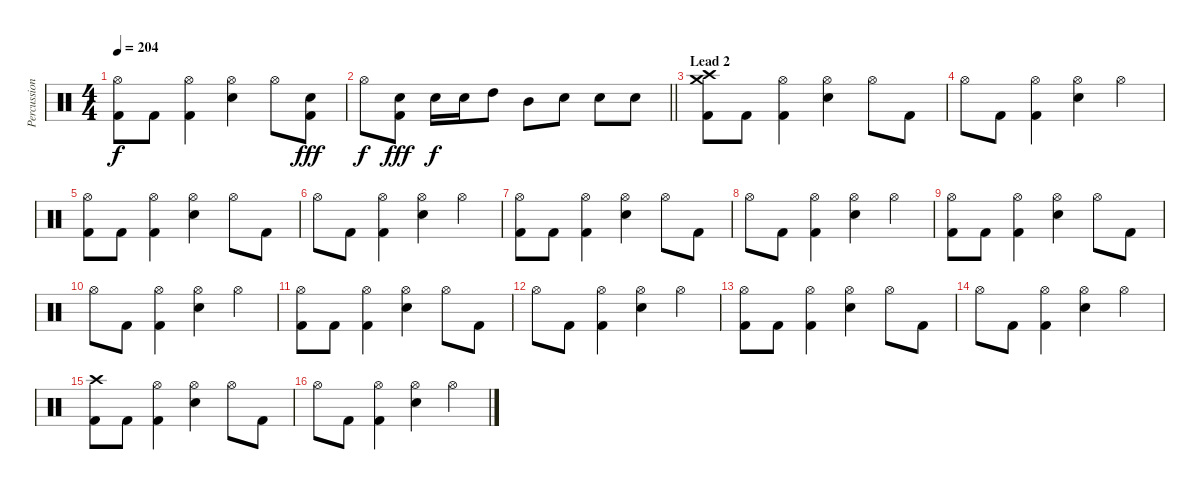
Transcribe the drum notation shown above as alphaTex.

\track ("Percussions" "Percussion") {instrument percussion}
\staff {score}
\articulation defaults
\ts (4 4)
\tempo 204
\clef neutral
\ks c
("Hi-Hat (open)" "Kick (hit) 2").8{dy f} "Kick (hit) 2".8 ("Hi-Hat (open)" "Kick (hit) 2").4 ("Hi-Hat (open)" "Electric Snare (hit)").4 "Hi-Hat (open)".8 ("Electric Snare (hit)" "Kick (hit) 2").8{dy fff} |
\barLineRight lightlight "Hi-Hat (open)".8{dy f}
("Electric Snare (hit)" "Kick (hit) 2").8{dy fff} "Electric Snare (hit)".16{dy f} "Electric Snare (hit)".16 "High Tom (hit)".8 "Mid Tom (hit)".8 "Electric Snare (hit)".8 "Electric Snare (hit)".8 "Electric Snare (hit)".8 |
\section ("" "Lead 2")
("Crash medium (hit)" "Crash high (hit)" "Kick (hit) 2").8 "Kick (hit) 2".8 ("Hi-Hat (open)" "Kick (hit) 2").4 ("Hi-Hat (open)" "Electric Snare (hit)").4 "Hi-Hat (open)".8 "Kick (hit) 2".8 |
"Hi-Hat (open)".8 "Kick (hit) 2".8 ("Hi-Hat (open)" "Kick (hit) 2").4 ("Hi-Hat (open)" "Electric Snare (hit)").4 "Hi-Hat (open)".4 |
("Hi-Hat (open)" "Kick (hit) 2").8 "Kick (hit) 2".8 ("Hi-Hat (open)" "Kick (hit) 2").4 ("Hi-Hat (open)" "Electric Snare (hit)").4 "Hi-Hat (open)".8 "Kick (hit) 2".8 |
"Hi-Hat (open)".8 "Kick (hit) 2".8 ("Hi-Hat (open)" "Kick (hit) 2").4 ("Hi-Hat (open)" "Electric Snare (hit)").4 "Hi-Hat (open)".4 |
("Hi-Hat (open)" "Kick (hit) 2").8 "Kick (hit) 2".8 ("Hi-Hat (open)" "Kick (hit) 2").4 ("Hi-Hat (open)" "Electric Snare (hit)").4 "Hi-Hat (open)".8 "Kick (hit) 2".8 |
"Hi-Hat (open)".8 "Kick (hit) 2".8 ("Hi-Hat (open)" "Kick (hit) 2").4 ("Hi-Hat (open)" "Electric Snare (hit)").4 "Hi-Hat (open)".4 |
("Hi-Hat (open)" "Kick (hit) 2").8 "Kick (hit) 2".8 ("Hi-Hat (open)" "Kick (hit) 2").4 ("Hi-Hat (open)" "Electric Snare (hit)").4 "Hi-Hat (open)".8 "Kick (hit) 2".8 |
"Hi-Hat (open)".8 "Kick (hit) 2".8 ("Hi-Hat (open)" "Kick (hit) 2").4 ("Hi-Hat (open)" "Electric Snare (hit)").4 "Hi-Hat (open)".4 |
("Hi-Hat (open)" "Kick (hit) 2").8 "Kick (hit) 2".8 ("Hi-Hat (open)" "Kick (hit) 2").4 ("Hi-Hat (open)" "Electric Snare (hit)").4 "Hi-Hat (open)".8 "Kick (hit) 2".8 |
"Hi-Hat (open)".8 "Kick (hit) 2".8 ("Hi-Hat (open)" "Kick (hit) 2").4 ("Hi-Hat (open)" "Electric Snare (hit)").4 "Hi-Hat (open)".4 |
("Hi-Hat (open)" "Kick (hit) 2").8 "Kick (hit) 2".8 ("Hi-Hat (open)" "Kick (hit) 2").4 ("Hi-Hat (open)" "Electric Snare (hit)").4 "Hi-Hat (open)".8 "Kick (hit) 2".8 |
"Hi-Hat (open)".8 "Kick (hit) 2".8 ("Hi-Hat (open)" "Kick (hit) 2").4 ("Hi-Hat (open)" "Electric Snare (hit)").4 "Hi-Hat (open)".4 |
("Crash high (hit)" "Kick (hit) 2").8 "Kick (hit) 2".8 ("Hi-Hat (open)" "Kick (hit) 2").4 ("Hi-Hat (open)" "Electric Snare (hit)").4 "Hi-Hat (open)".8 "Kick (hit) 2".8 |
"Hi-Hat (open)".8 "Kick (hit) 2".8 ("Hi-Hat (open)" "Kick (hit) 2").4 ("Hi-Hat (open)" "Electric Snare (hit)").4 "Hi-Hat (open)".4
